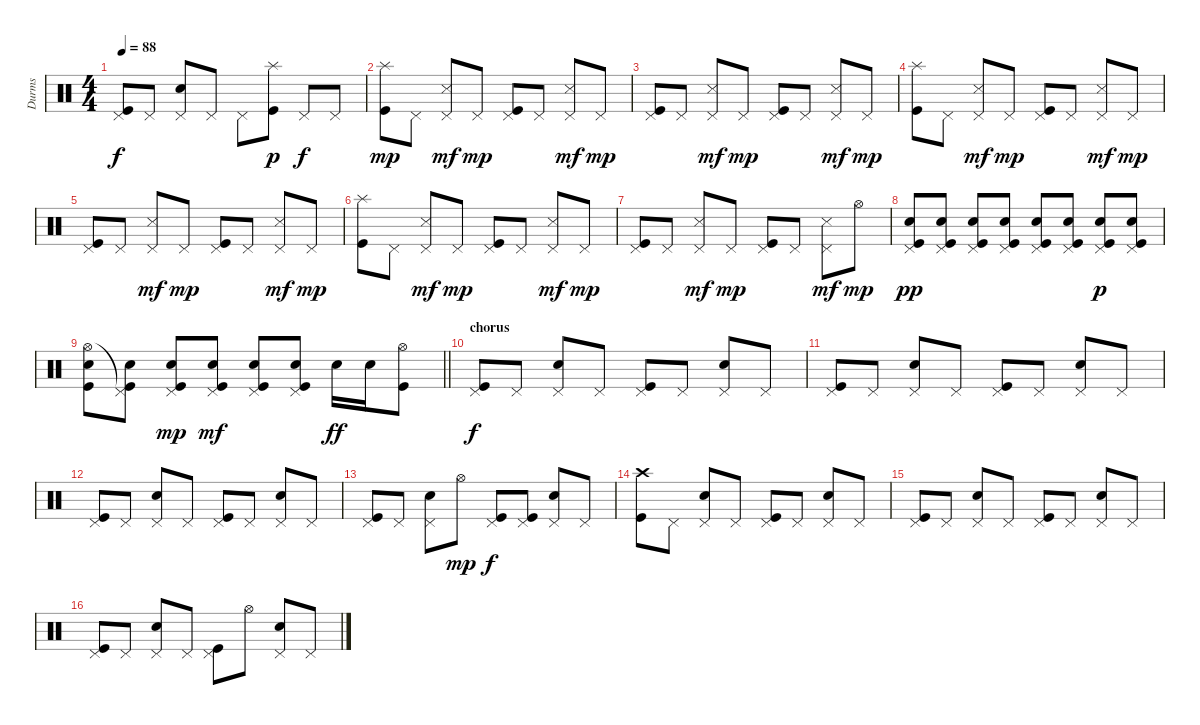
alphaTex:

\track ("Durms" "Durms") {instrument percussion}
\staff {score}
\articulation defaults
\ts (4 4)
\tempo 88
\clef neutral
\ks c
("Pedal Hi-Hat (hit)" "Kick (hit)").8{dy f} "Pedal Hi-Hat (hit)".8 ("Pedal Hi-Hat (hit)" "Snare (hit) 2").8 "Pedal Hi-Hat (hit)".8 "Pedal Hi-Hat (hit)".8 ("Splash (hit)" "Kick (hit)").8{dy p} "Pedal Hi-Hat (hit)".8{dy f} "Pedal Hi-Hat (hit)".8 |
("Splash (hit)" "Kick (hit)").8{dy mp} "Pedal Hi-Hat (hit)".8 ("Pedal Hi-Hat (hit)" "Snare (side stick) 3").8{dy mf} "Pedal Hi-Hat (hit)".8{dy mp} ("Pedal Hi-Hat (hit)" "Kick (hit)").8 "Pedal Hi-Hat (hit)".8 ("Pedal Hi-Hat (hit)" "Snare (side stick) 3").8{dy mf} "Pedal Hi-Hat (hit)".8{dy mp} |
("Pedal Hi-Hat (hit)" "Kick (hit)").8 "Pedal Hi-Hat (hit)".8 ("Pedal Hi-Hat (hit)" "Snare (side stick) 3").8{dy mf} "Pedal Hi-Hat (hit)".8{dy mp} ("Pedal Hi-Hat (hit)" "Kick (hit)").8 "Pedal Hi-Hat (hit)".8 ("Pedal Hi-Hat (hit)" "Snare (side stick) 3").8{dy mf} "Pedal Hi-Hat (hit)".8{dy mp} |
("Splash (hit)" "Kick (hit)").8 "Pedal Hi-Hat (hit)".8 ("Pedal Hi-Hat (hit)" "Snare (side stick) 3").8{dy mf} "Pedal Hi-Hat (hit)".8{dy mp} ("Pedal Hi-Hat (hit)" "Kick (hit)").8 "Pedal Hi-Hat (hit)".8 ("Pedal Hi-Hat (hit)" "Snare (side stick) 3").8{dy mf} "Pedal Hi-Hat (hit)".8{dy mp} |
("Pedal Hi-Hat (hit)" "Kick (hit)").8 "Pedal Hi-Hat (hit)".8 ("Pedal Hi-Hat (hit)" "Snare (side stick) 3").8{dy mf} "Pedal Hi-Hat (hit)".8{dy mp} ("Pedal Hi-Hat (hit)" "Kick (hit)").8 "Pedal Hi-Hat (hit)".8 ("Pedal Hi-Hat (hit)" "Snare (side stick) 3").8{dy mf} "Pedal Hi-Hat (hit)".8{dy mp} |
("Splash (hit)" "Kick (hit)").8 "Pedal Hi-Hat (hit)".8 ("Pedal Hi-Hat (hit)" "Snare (side stick) 3").8{dy mf} "Pedal Hi-Hat (hit)".8{dy mp} ("Pedal Hi-Hat (hit)" "Kick (hit)").8 "Pedal Hi-Hat (hit)".8 ("Pedal Hi-Hat (hit)" "Snare (side stick) 3").8{dy mf} "Pedal Hi-Hat (hit)".8{dy mp} |
("Pedal Hi-Hat (hit)" "Kick (hit)").8 "Pedal Hi-Hat (hit)".8 ("Pedal Hi-Hat (hit)" "Snare (side stick) 3").8{dy mf} "Pedal Hi-Hat (hit)".8{dy mp} ("Pedal Hi-Hat (hit)" "Kick (hit)").8 "Pedal Hi-Hat (hit)".8 ("Pedal Hi-Hat (hit)" "Snare (side stick) 3").8{dy mf} "Hi-Hat (open)".8{dy mp} |
("Pedal Hi-Hat (hit)" "Snare (hit) 2" "Kick (hit)").8{dy pp} ("Pedal Hi-Hat (hit)" "Snare (hit) 2" "Kick (hit)").8 ("Pedal Hi-Hat (hit)" "Snare (hit) 2" "Kick (hit)").8 ("Pedal Hi-Hat (hit)" "Snare (hit) 2" "Kick (hit)").8 ("Pedal Hi-Hat (hit)" "Snare (hit) 2" "Kick (hit)").8 ("Pedal Hi-Hat (hit)" "Snare (hit) 2" "Kick (hit)").8 ("Pedal Hi-Hat (hit)" "Snare (hit) 2" "Kick (hit)").8{dy p} ("Pedal Hi-Hat (hit)" "Snare (hit) 2" "Kick (hit)").8 |
\barLineRight lightlight
("Hi-Hat (open)" "Snare (hit) 2" "Kick (hit)").8 ("Pedal Hi-Hat (hit)"{t} "Snare (hit) 2" "Kick (hit)").8 ("Pedal Hi-Hat (hit)" "Snare (hit) 2" "Kick (hit)").8{dy mp} ("Pedal Hi-Hat (hit)" "Snare (hit) 2" "Kick (hit)").8{dy mf} ("Pedal Hi-Hat (hit)" "Snare (hit) 2" "Kick (hit)").8 ("Pedal Hi-Hat (hit)" "Snare (hit) 2" "Kick (hit)").8 "Snare (hit) 2".16{dy ff} "Snare (hit) 2".16 ("Hi-Hat (open)" "Kick (hit)").8 |
\section ("" "chorus ")
("Pedal Hi-Hat (hit)" "Kick (hit)").8{dy f} "Pedal Hi-Hat (hit)".8 ("Pedal Hi-Hat (hit)" "Snare (hit) 2").8 "Pedal Hi-Hat (hit)".8 ("Pedal Hi-Hat (hit)" "Kick (hit)").8 "Pedal Hi-Hat (hit)".8 ("Pedal Hi-Hat (hit)" "Snare (hit) 2").8 "Pedal Hi-Hat (hit)".8 |
("Pedal Hi-Hat (hit)" "Kick (hit)").8 "Pedal Hi-Hat (hit)".8 ("Pedal Hi-Hat (hit)" "Snare (hit) 2").8 "Pedal Hi-Hat (hit)".8 ("Pedal Hi-Hat (hit)" "Kick (hit)").8 "Pedal Hi-Hat (hit)".8 ("Pedal Hi-Hat (hit)" "Snare (hit) 2").8 "Pedal Hi-Hat (hit)".8 |
("Pedal Hi-Hat (hit)" "Kick (hit)").8 "Pedal Hi-Hat (hit)".8 ("Pedal Hi-Hat (hit)" "Snare (hit) 2").8 "Pedal Hi-Hat (hit)".8 ("Pedal Hi-Hat (hit)" "Kick (hit)").8 "Pedal Hi-Hat (hit)".8 ("Pedal Hi-Hat (hit)" "Snare (hit) 2").8 "Pedal Hi-Hat (hit)".8 |
("Pedal Hi-Hat (hit)" "Kick (hit)").8 "Pedal Hi-Hat (hit)".8 ("Pedal Hi-Hat (hit)" "Snare (hit) 2").8 "Hi-Hat (open)".8{dy mp} ("Pedal Hi-Hat (hit)" "Kick (hit)").8{dy f} ("Pedal Hi-Hat (hit)" "Kick (hit)").8 ("Pedal Hi-Hat (hit)" "Snare (hit) 2").8 "Pedal Hi-Hat (hit)".8 |
("Crash high (hit)" "Kick (hit)").8 "Pedal Hi-Hat (hit)".8 ("Pedal Hi-Hat (hit)" "Snare (hit) 2").8 "Pedal Hi-Hat (hit)".8 ("Pedal Hi-Hat (hit)" "Kick (hit)").8 "Pedal Hi-Hat (hit)".8 ("Pedal Hi-Hat (hit)" "Snare (hit) 2").8 "Pedal Hi-Hat (hit)".8 |
("Pedal Hi-Hat (hit)" "Kick (hit)").8 "Pedal Hi-Hat (hit)".8 ("Pedal Hi-Hat (hit)" "Snare (hit) 2").8 "Pedal Hi-Hat (hit)".8 ("Pedal Hi-Hat (hit)" "Kick (hit)").8 "Pedal Hi-Hat (hit)".8 ("Pedal Hi-Hat (hit)" "Snare (hit) 2").8 "Pedal Hi-Hat (hit)".8 |
("Pedal Hi-Hat (hit)" "Kick (hit)").8 "Pedal Hi-Hat (hit)".8 ("Pedal Hi-Hat (hit)" "Snare (hit) 2").8 "Pedal Hi-Hat (hit)".8 ("Pedal Hi-Hat (hit)" "Kick (hit)").8 "Hi-Hat (open)".8 ("Pedal Hi-Hat (hit)" "Snare (hit) 2").8 "Pedal Hi-Hat (hit)".8
